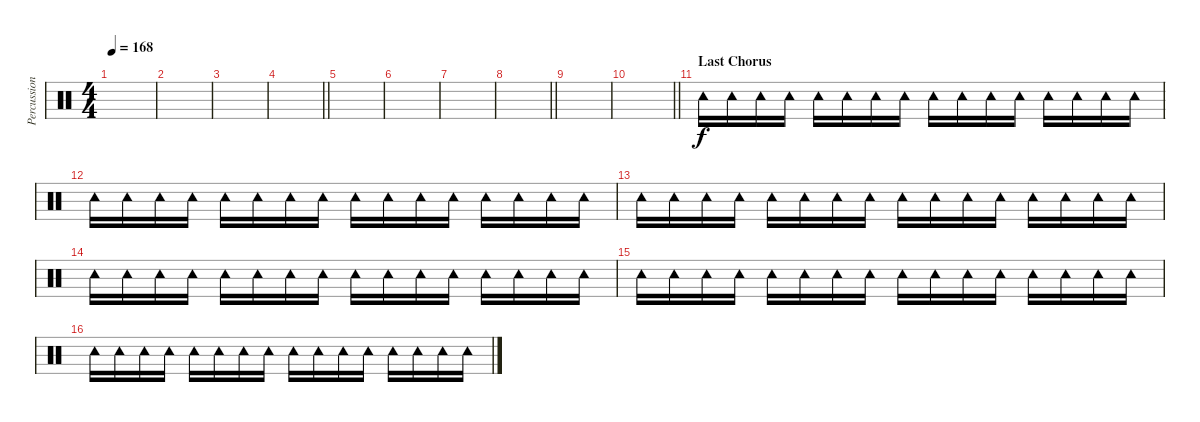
\track ("Percussion" "Percussion") {instrument percussion}
\staff {score}
\articulation defaults
\ts (4 4)
\tempo 168
\clef neutral
\ks c
|
|
|
\barLineRight lightlight
|
|
|
|
\barLineRight lightlight
|
|
\barLineRight lightlight
|
\section ("" "Last Chorus")
"Tambourine (hit)".16 "Tambourine (hit)".16 "Tambourine (hit)".16 "Tambourine (hit)".16 "Tambourine (hit)".16 "Tambourine (hit)".16 "Tambourine (hit)".16 "Tambourine (hit)".16 "Tambourine (hit)".16 "Tambourine (hit)".16 "Tambourine (hit)".16 "Tambourine (hit)".16 "Tambourine (hit)".16 "Tambourine (hit)".16 "Tambourine (hit)".16 "Tambourine (hit)".16 |
"Tambourine (hit)".16 "Tambourine (hit)".16 "Tambourine (hit)".16 "Tambourine (hit)".16 "Tambourine (hit)".16 "Tambourine (hit)".16 "Tambourine (hit)".16 "Tambourine (hit)".16 "Tambourine (hit)".16 "Tambourine (hit)".16 "Tambourine (hit)".16 "Tambourine (hit)".16 "Tambourine (hit)".16 "Tambourine (hit)".16 "Tambourine (hit)".16 "Tambourine (hit)".16 |
"Tambourine (hit)".16 "Tambourine (hit)".16 "Tambourine (hit)".16 "Tambourine (hit)".16 "Tambourine (hit)".16 "Tambourine (hit)".16 "Tambourine (hit)".16 "Tambourine (hit)".16 "Tambourine (hit)".16 "Tambourine (hit)".16 "Tambourine (hit)".16 "Tambourine (hit)".16 "Tambourine (hit)".16 "Tambourine (hit)".16 "Tambourine (hit)".16 "Tambourine (hit)".16 |
"Tambourine (hit)".16 "Tambourine (hit)".16 "Tambourine (hit)".16 "Tambourine (hit)".16 "Tambourine (hit)".16 "Tambourine (hit)".16 "Tambourine (hit)".16 "Tambourine (hit)".16 "Tambourine (hit)".16 "Tambourine (hit)".16 "Tambourine (hit)".16 "Tambourine (hit)".16 "Tambourine (hit)".16 "Tambourine (hit)".16 "Tambourine (hit)".16 "Tambourine (hit)".16 |
"Tambourine (hit)".16 "Tambourine (hit)".16 "Tambourine (hit)".16 "Tambourine (hit)".16 "Tambourine (hit)".16 "Tambourine (hit)".16 "Tambourine (hit)".16 "Tambourine (hit)".16 "Tambourine (hit)".16 "Tambourine (hit)".16 "Tambourine (hit)".16 "Tambourine (hit)".16 "Tambourine (hit)".16 "Tambourine (hit)".16 "Tambourine (hit)".16 "Tambourine (hit)".16 |
"Tambourine (hit)".16 "Tambourine (hit)".16 "Tambourine (hit)".16 "Tambourine (hit)".16 "Tambourine (hit)".16 "Tambourine (hit)".16 "Tambourine (hit)".16 "Tambourine (hit)".16 "Tambourine (hit)".16 "Tambourine (hit)".16 "Tambourine (hit)".16 "Tambourine (hit)".16 "Tambourine (hit)".16 "Tambourine (hit)".16 "Tambourine (hit)".16 "Tambourine (hit)".16
